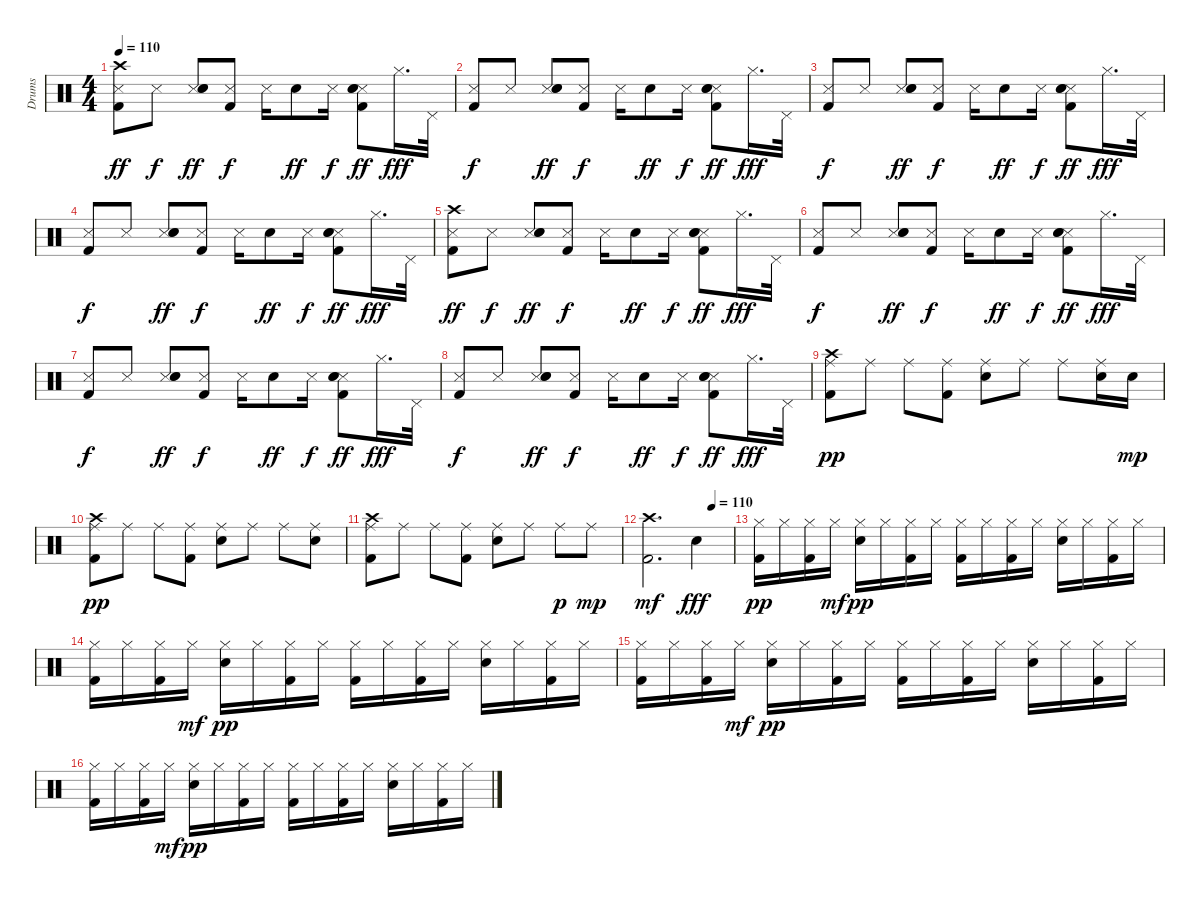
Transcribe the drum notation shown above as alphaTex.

\track ("Drums" "Drums") {instrument percussion}
\staff {score}
\articulation defaults
\ts (4 4)
\tempo 110
\clef neutral
\ks c
("Crash high (hit)" "Snare (side stick) 3" "Kick (hit) 2").8{dy ff} "Snare (side stick) 3".8{dy f} ("Snare (side stick) 3" "Snare (hit) 2" "Hand Clap (hit)").8{dy ff} ("Snare (side stick) 3" "Kick (hit) 2").8{dy f} "Snare (side stick) 3".16 "Hand Clap (hit)".8{dy ff} "Snare (side stick) 3".16{dy f} ("Snare (side stick) 3" "Snare (hit) 2" "Kick (hit) 2" "Hand Clap (hit)").8{dy ff} "Hi-Hat (closed)".16{d dy fff} "Pedal Hi-Hat (hit)".32 |
("Snare (side stick) 3" "Kick (hit) 2").8{dy f} "Snare (side stick) 3".8 ("Snare (side stick) 3" "Snare (hit) 2" "Hand Clap (hit)").8{dy ff} ("Snare (side stick) 3" "Kick (hit) 2").8{dy f} "Snare (side stick) 3".16 "Hand Clap (hit)".8{dy ff} "Snare (side stick) 3".16{dy f} ("Snare (side stick) 3" "Snare (hit) 2" "Kick (hit) 2" "Hand Clap (hit)").8{dy ff} "Hi-Hat (closed)".16{d dy fff} "Pedal Hi-Hat (hit)".32 |
("Snare (side stick) 3" "Kick (hit) 2").8{dy f} "Snare (side stick) 3".8 ("Snare (side stick) 3" "Snare (hit) 2" "Hand Clap (hit)").8{dy ff} ("Snare (side stick) 3" "Kick (hit) 2").8{dy f} "Snare (side stick) 3".16 "Hand Clap (hit)".8{dy ff} "Snare (side stick) 3".16{dy f} ("Snare (side stick) 3" "Snare (hit) 2" "Kick (hit) 2" "Hand Clap (hit)").8{dy ff} "Hi-Hat (closed)".16{d dy fff} "Pedal Hi-Hat (hit)".32 |
("Snare (side stick) 3" "Kick (hit) 2").8{dy f} "Snare (side stick) 3".8 ("Snare (side stick) 3" "Snare (hit) 2" "Hand Clap (hit)").8{dy ff} ("Snare (side stick) 3" "Kick (hit) 2").8{dy f} "Snare (side stick) 3".16 "Hand Clap (hit)".8{dy ff} "Snare (side stick) 3".16{dy f} ("Snare (side stick) 3" "Snare (hit) 2" "Kick (hit) 2" "Hand Clap (hit)").8{dy ff} "Hi-Hat (closed)".16{d dy fff} "Pedal Hi-Hat (hit)".32 |
("Crash high (hit)" "Snare (side stick) 3" "Kick (hit) 2").8{dy ff} "Snare (side stick) 3".8{dy f} ("Snare (side stick) 3" "Snare (hit) 2" "Hand Clap (hit)").8{dy ff} ("Snare (side stick) 3" "Kick (hit) 2").8{dy f} "Snare (side stick) 3".16 "Hand Clap (hit)".8{dy ff} "Snare (side stick) 3".16{dy f} ("Snare (side stick) 3" "Snare (hit) 2" "Kick (hit) 2" "Hand Clap (hit)").8{dy ff} "Hi-Hat (closed)".16{d dy fff} "Pedal Hi-Hat (hit)".32 |
("Snare (side stick) 3" "Kick (hit) 2").8{dy f} "Snare (side stick) 3".8 ("Snare (side stick) 3" "Snare (hit) 2" "Hand Clap (hit)").8{dy ff} ("Snare (side stick) 3" "Kick (hit) 2").8{dy f} "Snare (side stick) 3".16 "Hand Clap (hit)".8{dy ff} "Snare (side stick) 3".16{dy f} ("Snare (side stick) 3" "Snare (hit) 2" "Kick (hit) 2" "Hand Clap (hit)").8{dy ff} "Hi-Hat (closed)".16{d dy fff} "Pedal Hi-Hat (hit)".32 |
("Snare (side stick) 3" "Kick (hit) 2").8{dy f} "Snare (side stick) 3".8 ("Snare (side stick) 3" "Snare (hit) 2" "Hand Clap (hit)").8{dy ff} ("Snare (side stick) 3" "Kick (hit) 2").8{dy f} "Snare (side stick) 3".16 "Hand Clap (hit)".8{dy ff} "Snare (side stick) 3".16{dy f} ("Snare (side stick) 3" "Snare (hit) 2" "Kick (hit) 2" "Hand Clap (hit)").8{dy ff} "Hi-Hat (closed)".16{d dy fff} "Pedal Hi-Hat (hit)".32 |
("Snare (side stick) 3" "Kick (hit) 2").8{dy f} "Snare (side stick) 3".8 ("Snare (side stick) 3" "Snare (hit) 2" "Hand Clap (hit)").8{dy ff} ("Snare (side stick) 3" "Kick (hit) 2").8{dy f} "Snare (side stick) 3".16 "Hand Clap (hit)".8{dy ff} "Snare (side stick) 3".16{dy f} ("Snare (side stick) 3" "Snare (hit) 2" "Kick (hit) 2" "Hand Clap (hit)").8{dy ff} "Hi-Hat (closed)".16{d dy fff} "Pedal Hi-Hat (hit)".32 |
("Kick (hit) 2" "Crash high (hit)" "Ride (middle)").8{dy pp} "Ride (middle)".8 "Ride (middle)".8 ("Kick (hit) 2" "Ride (middle)").8 ("Snare (hit) 2" "Ride (middle)").8 "Ride (middle)".8 "Ride (middle)".8 ("Snare (hit) 2" "Ride (middle)").16 "Snare (hit) 2".16{dy mp} |
("Kick (hit) 2" "Crash high (hit)" "Ride (middle)").8{dy pp} "Ride (middle)".8 "Ride (middle)".8 ("Kick (hit) 2" "Ride (middle)").8 ("Snare (hit) 2" "Ride (middle)").8 "Ride (middle)".8 "Ride (middle)".8 ("Snare (hit) 2" "Ride (middle)").8 |
("Kick (hit) 2" "Crash high (hit)" "Ride (middle)").8 "Ride (middle)".8 "Ride (middle)".8 ("Kick (hit) 2" "Ride (middle)").8 ("Snare (hit) 2" "Ride (middle)").8 "Ride (middle)".8 "Ride (middle)".8{dy p} "Ride (middle)".8{dy mp} |
\tempo (110 0.75)
("Kick (hit) 2" "Crash high (hit)").2{d dy mf} "Snare (hit) 2".4{dy fff} |
("Kick (hit) 2" "Hi-Hat (closed)").16{dy pp} "Hi-Hat (closed)".16 ("Kick (hit) 2" "Hi-Hat (closed)").16 "Hi-Hat (closed)".16{dy mf} ("Electric Snare (hit)" "Hi-Hat (closed)").16{dy pp} "Hi-Hat (closed)".16 ("Kick (hit) 2" "Hi-Hat (closed)").16 "Hi-Hat (closed)".16 ("Kick (hit) 2" "Hi-Hat (closed)").16 "Hi-Hat (closed)".16 ("Kick (hit) 2" "Hi-Hat (closed)").16 "Hi-Hat (closed)".16 ("Electric Snare (hit)" "Hi-Hat (closed)").16 "Hi-Hat (closed)".16 ("Kick (hit) 2" "Hi-Hat (closed)").16 "Hi-Hat (closed)".16 |
("Kick (hit) 2" "Hi-Hat (closed)").16 "Hi-Hat (closed)".16 ("Kick (hit) 2" "Hi-Hat (closed)").16 "Hi-Hat (closed)".16{dy mf} ("Electric Snare (hit)" "Hi-Hat (closed)").16{dy pp} "Hi-Hat (closed)".16 ("Kick (hit) 2" "Hi-Hat (closed)").16 "Hi-Hat (closed)".16 ("Kick (hit) 2" "Hi-Hat (closed)").16 "Hi-Hat (closed)".16 ("Kick (hit) 2" "Hi-Hat (closed)").16 "Hi-Hat (closed)".16 ("Electric Snare (hit)" "Hi-Hat (closed)").16 "Hi-Hat (closed)".16 ("Kick (hit) 2" "Hi-Hat (closed)").16 "Hi-Hat (closed)".16 |
("Kick (hit) 2" "Hi-Hat (closed)").16 "Hi-Hat (closed)".16 ("Kick (hit) 2" "Hi-Hat (closed)").16 "Hi-Hat (closed)".16{dy mf} ("Electric Snare (hit)" "Hi-Hat (closed)").16{dy pp} "Hi-Hat (closed)".16 ("Kick (hit) 2" "Hi-Hat (closed)").16 "Hi-Hat (closed)".16 ("Kick (hit) 2" "Hi-Hat (closed)").16 "Hi-Hat (closed)".16 ("Kick (hit) 2" "Hi-Hat (closed)").16 "Hi-Hat (closed)".16 ("Electric Snare (hit)" "Hi-Hat (closed)").16 "Hi-Hat (closed)".16 ("Kick (hit) 2" "Hi-Hat (closed)").16 "Hi-Hat (closed)".16 |
("Kick (hit) 2" "Hi-Hat (closed)").16 "Hi-Hat (closed)".16 ("Kick (hit) 2" "Hi-Hat (closed)").16 "Hi-Hat (closed)".16{dy mf} ("Electric Snare (hit)" "Hi-Hat (closed)").16{dy pp} "Hi-Hat (closed)".16 ("Kick (hit) 2" "Hi-Hat (closed)").16 "Hi-Hat (closed)".16 ("Kick (hit) 2" "Hi-Hat (closed)").16 "Hi-Hat (closed)".16 ("Kick (hit) 2" "Hi-Hat (closed)").16 "Hi-Hat (closed)".16 ("Electric Snare (hit)" "Hi-Hat (closed)").16 "Hi-Hat (closed)".16 ("Kick (hit) 2" "Hi-Hat (closed)").16 "Hi-Hat (closed)".16
